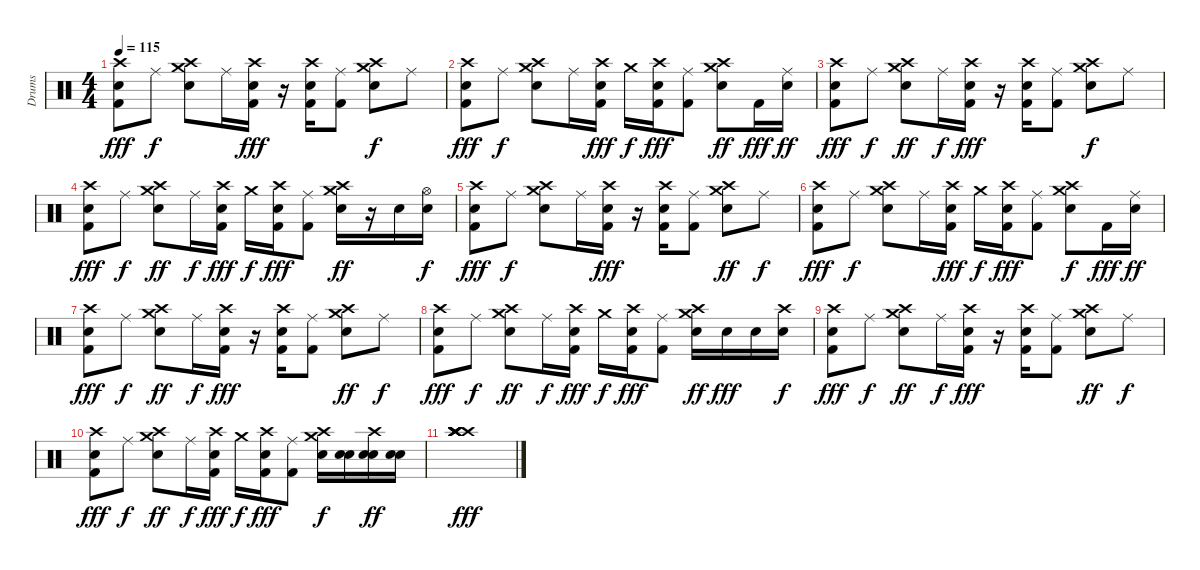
\track ("Drums" "Drums") {instrument percussion}
\staff {score}
\articulation defaults
\ts (4 4)
\tempo 115
\clef neutral
\ks c
("Crash high (hit)" "Electric Snare (hit)" "Kick (hit) 2").8{dy fff} "Ride (middle)".8{dy f} ("Crash high (hit)" "Crash medium (hit)" "Snare (hit) 2").8{bu 60} "Ride (middle)".16 ("Crash high (hit)" "Electric Snare (hit)" "Kick (hit) 2").16{dy fff} r.16 ("Crash high (hit)" "Electric Snare (hit)" "Kick (hit) 2").16 ("Ride (middle)" "Kick (hit) 2").8 ("Crash high (hit)" "Crash medium (hit)" "Snare (hit) 2").8{bu 60 dy f} "Ride (middle)".8 |
("Crash high (hit)" "Electric Snare (hit)" "Kick (hit) 2").8{dy fff} "Ride (middle)".8{dy f} ("Crash high (hit)" "Crash medium (hit)" "Snare (hit) 2").8{bu 60} "Ride (middle)".16 ("Crash high (hit)" "Electric Snare (hit)" "Kick (hit) 2").16{dy fff} "Crash medium (hit)".16{dy f} ("Crash high (hit)" "Electric Snare (hit)" "Kick (hit) 2").16{dy fff} ("Ride (middle)" "Kick (hit) 2").8 ("Crash high (hit)" "Crash medium (hit)" "Snare (hit) 2").8{bu 60 dy ff} "Kick (hit) 2".16{dy fff} ("Ride (middle)" "Electric Snare (hit)").16{dy ff} |
("Crash high (hit)" "Electric Snare (hit)" "Kick (hit) 2").8{dy fff} "Ride (middle)".8{dy f} ("Crash high (hit)" "Crash medium (hit)" "Snare (hit) 2").8{bu 60 dy ff} "Ride (middle)".16{dy f} ("Crash high (hit)" "Electric Snare (hit)" "Kick (hit) 2").16{dy fff} r.16 ("Crash high (hit)" "Electric Snare (hit)" "Kick (hit) 2").16 ("Ride (middle)" "Kick (hit) 2").8 ("Crash high (hit)" "Crash medium (hit)" "Snare (hit) 2").8{bu 60 dy f} "Ride (middle)".8 |
("Crash high (hit)" "Electric Snare (hit)" "Kick (hit) 2").8{dy fff} "Ride (middle)".8{dy f} ("Crash high (hit)" "Crash medium (hit)" "Snare (hit) 2").8{bu 60 dy ff} "Ride (middle)".16{dy f} ("Crash high (hit)" "Electric Snare (hit)" "Kick (hit) 2").16{dy fff} "Crash medium (hit)".16{dy f} ("Crash high (hit)" "Electric Snare (hit)" "Kick (hit) 2").16{dy fff} ("Ride (middle)" "Kick (hit) 2").8 ("Crash high (hit)" "Crash medium (hit)" "Snare (hit) 2").16{bu 60 dy ff} r.16 "Snare (hit) 2".16 ("Hi-Hat (open)" "Snare (hit) 2").16{dy f} |
("Crash high (hit)" "Electric Snare (hit)" "Kick (hit) 2").8{dy fff} "Ride (middle)".8{dy f} ("Crash high (hit)" "Crash medium (hit)" "Snare (hit) 2").8{bu 60} "Ride (middle)".16 ("Crash high (hit)" "Electric Snare (hit)" "Kick (hit) 2").16{dy fff} r.16 ("Crash high (hit)" "Electric Snare (hit)" "Kick (hit) 2").16 ("Ride (middle)" "Kick (hit) 2").8 ("Crash high (hit)" "Crash medium (hit)" "Snare (hit) 2").8{bu 60 dy ff} "Ride (middle)".8{dy f} |
("Crash high (hit)" "Electric Snare (hit)" "Kick (hit) 2").8{dy fff} "Ride (middle)".8{dy f} ("Crash high (hit)" "Crash medium (hit)" "Snare (hit) 2").8{bu 60} "Ride (middle)".16 ("Crash high (hit)" "Electric Snare (hit)" "Kick (hit) 2").16{dy fff} "Crash medium (hit)".16{dy f} ("Crash high (hit)" "Electric Snare (hit)" "Kick (hit) 2").16{dy fff} ("Ride (middle)" "Kick (hit) 2").8 ("Crash high (hit)" "Crash medium (hit)" "Snare (hit) 2").8{bu 60 dy f} "Kick (hit) 2".16{dy fff} ("Ride (middle)" "Electric Snare (hit)").16{dy ff} |
("Crash high (hit)" "Electric Snare (hit)" "Kick (hit) 2").8{dy fff} "Ride (middle)".8{dy f} ("Crash high (hit)" "Crash medium (hit)" "Snare (hit) 2").8{bu 60 dy ff} "Ride (middle)".16{dy f} ("Crash high (hit)" "Electric Snare (hit)" "Kick (hit) 2").16{dy fff} r.16 ("Crash high (hit)" "Electric Snare (hit)" "Kick (hit) 2").16 ("Ride (middle)" "Kick (hit) 2").8 ("Crash high (hit)" "Crash medium (hit)" "Snare (hit) 2").8{bu 60 dy ff} "Ride (middle)".8{dy f} |
("Crash high (hit)" "Electric Snare (hit)" "Kick (hit) 2").8{dy fff} "Ride (middle)".8{dy f} ("Crash high (hit)" "Crash medium (hit)" "Snare (hit) 2").8{bu 60 dy ff} "Ride (middle)".16{dy f} ("Crash high (hit)" "Electric Snare (hit)" "Kick (hit) 2").16{dy fff} "Crash medium (hit)".16{dy f} ("Crash high (hit)" "Electric Snare (hit)" "Kick (hit) 2").16{dy fff} ("Ride (middle)" "Kick (hit) 2").8 ("Crash high (hit)" "Crash medium (hit)" "Snare (hit) 2").16{bu 60 dy ff} "Electric Snare (hit)".16{dy fff} "Electric Snare (hit)".16 ("Crash high (hit)" "Snare (hit) 2").16{dy f} |
("Crash high (hit)" "Electric Snare (hit)" "Kick (hit) 2").8{dy fff} "Ride (middle)".8{dy f} ("Crash high (hit)" "Crash medium (hit)" "Snare (hit) 2").8{bu 60 dy ff} "Ride (middle)".16{dy f} ("Crash high (hit)" "Electric Snare (hit)" "Kick (hit) 2").16{dy fff} r.16 ("Crash high (hit)" "Electric Snare (hit)" "Kick (hit) 2").16 ("Ride (middle)" "Kick (hit) 2").8 ("Crash high (hit)" "Crash medium (hit)" "Snare (hit) 2").8{bu 60 dy ff} "Ride (middle)".8{dy f} |
("Crash high (hit)" "Electric Snare (hit)" "Kick (hit) 2").8{dy fff} "Ride (middle)".8{dy f} ("Crash high (hit)" "Crash medium (hit)" "Snare (hit) 2").8{bu 60 dy ff} "Ride (middle)".16{dy f} ("Crash high (hit)" "Electric Snare (hit)" "Kick (hit) 2").16{dy fff} "Crash medium (hit)".16{dy f} ("Crash high (hit)" "Electric Snare (hit)" "Kick (hit) 2").16{dy fff} ("Ride (middle)" "Kick (hit) 2").8 ("Crash high (hit)" "Crash medium (hit)" "Snare (hit) 2").16{bu 60 dy f} ("Snare (hit) 2" "Snare (hit) 2").16{bu 60} ("Crash high (hit)" "Snare (hit) 2" "Snare (hit) 2").16{bu 60 dy ff} ("Snare (hit) 2" "Snare (hit) 2").16{bu 60} |
("Crash high (hit)" "Crash high (hit)" "Crash high (hit)" "Crash high (hit)" "Crash high (hit)" "Crash high (hit)").1{bd 30 dy fff}
